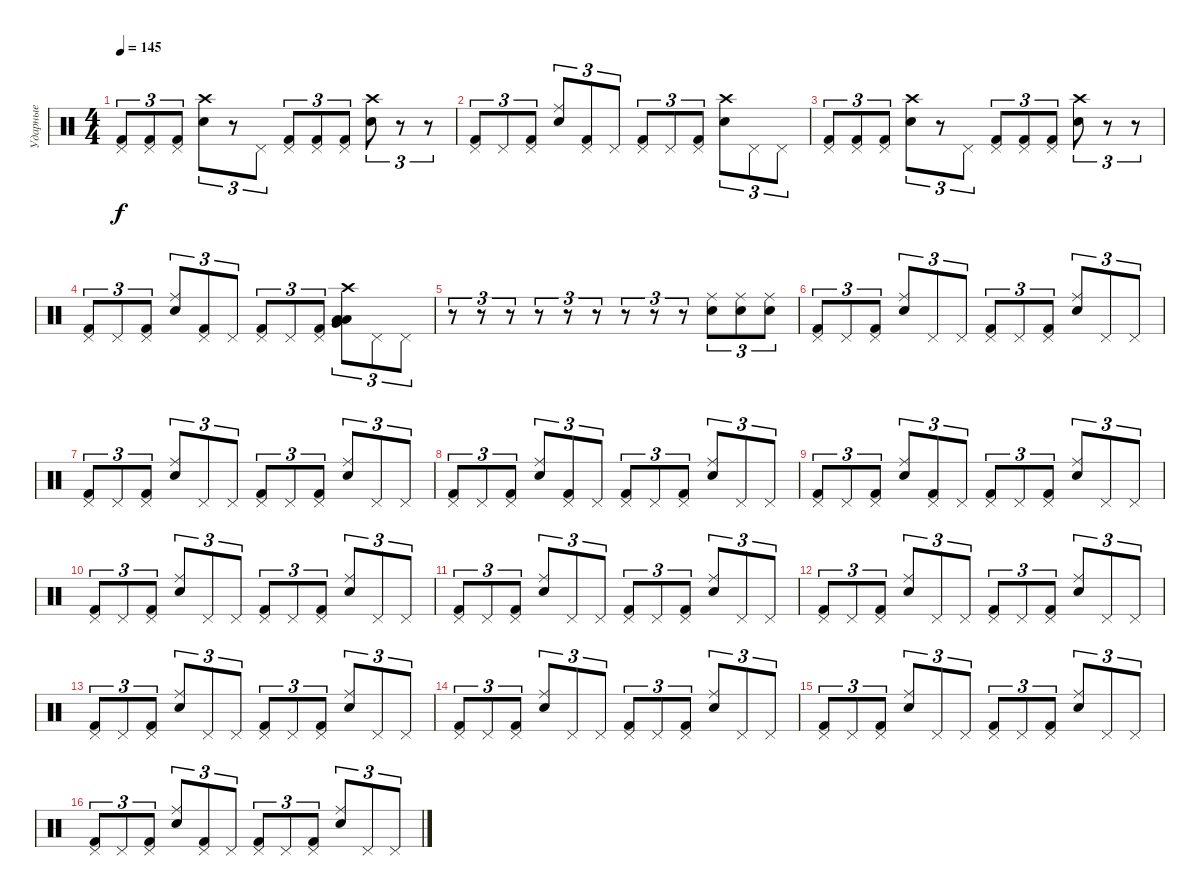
\track ("Ударные" "Ударные") {instrument percussion}
\staff {score}
\articulation defaults
\ts (4 4)
\tempo 145
\clef neutral
\ks c
("Kick (hit) 2" "Pedal Hi-Hat (hit)").8{tu (3 2) dy f} ("Kick (hit) 2" "Pedal Hi-Hat (hit)").8{tu (3 2)} ("Kick (hit) 2" "Pedal Hi-Hat (hit)").8{tu (3 2)} ("Crash high (hit)" "Electric Snare (hit)").8{tu (3 2)} r.8{tu (3 2)} "Pedal Hi-Hat (hit)".8{tu (3 2)} ("Kick (hit) 2" "Pedal Hi-Hat (hit)").8{tu (3 2)} ("Kick (hit) 2" "Pedal Hi-Hat (hit)").8{tu (3 2)} ("Kick (hit) 2" "Pedal Hi-Hat (hit)").8{tu (3 2)} ("Electric Snare (hit)" "Crash high (hit)").8{tu (3 2)} r.8{tu (3 2)} r.8{tu (3 2)} |
("Kick (hit) 2" "Pedal Hi-Hat (hit)").8{tu (3 2)} "Pedal Hi-Hat (hit)".8{tu (3 2)} ("Kick (hit) 2" "Pedal Hi-Hat (hit)").8{tu (3 2)} ("Electric Snare (hit)" "Ride (middle)").8{tu (3 2)} ("Kick (hit) 2" "Pedal Hi-Hat (hit)").8{tu (3 2)} "Pedal Hi-Hat (hit)".8{tu (3 2)} ("Kick (hit) 2" "Pedal Hi-Hat (hit)").8{tu (3 2)} "Pedal Hi-Hat (hit)".8{tu (3 2)} ("Pedal Hi-Hat (hit)" "Kick (hit) 2").8{tu (3 2)} ("Electric Snare (hit)" "Crash high (hit)").8{tu (3 2)} "Pedal Hi-Hat (hit)".8{tu (3 2)} "Pedal Hi-Hat (hit)".8{tu (3 2)} |
("Kick (hit) 2" "Pedal Hi-Hat (hit)").8{tu (3 2)} ("Kick (hit) 2" "Pedal Hi-Hat (hit)").8{tu (3 2)} ("Kick (hit) 2" "Pedal Hi-Hat (hit)").8{tu (3 2)} ("Crash high (hit)" "Electric Snare (hit)").8{tu (3 2)} r.8{tu (3 2)} "Pedal Hi-Hat (hit)".8{tu (3 2)} ("Kick (hit) 2" "Pedal Hi-Hat (hit)").8{tu (3 2)} ("Kick (hit) 2" "Pedal Hi-Hat (hit)").8{tu (3 2)} ("Kick (hit) 2" "Pedal Hi-Hat (hit)").8{tu (3 2)} ("Electric Snare (hit)" "Crash high (hit)").8{tu (3 2)} r.8{tu (3 2)} r.8{tu (3 2)} |
("Kick (hit) 2" "Pedal Hi-Hat (hit)").8{tu (3 2)} "Pedal Hi-Hat (hit)".8{tu (3 2)} ("Kick (hit) 2" "Pedal Hi-Hat (hit)").8{tu (3 2)} ("Electric Snare (hit)" "Ride (middle)").8{tu (3 2)} ("Kick (hit) 2" "Pedal Hi-Hat (hit)").8{tu (3 2)} "Pedal Hi-Hat (hit)".8{tu (3 2)} ("Kick (hit) 2" "Pedal Hi-Hat (hit)").8{tu (3 2)} "Pedal Hi-Hat (hit)".8{tu (3 2)} ("Pedal Hi-Hat (hit)" "Kick (hit) 2").8{tu (3 2)} ("Very Low Tom (hit)" "Low Floor Tom (hit)" "Crash high (hit)" "Low Tom (hit)").8{tu (3 2)} "Pedal Hi-Hat (hit)".8{tu (3 2)} "Pedal Hi-Hat (hit)".8{tu (3 2)} |
r.8{tu (3 2)} r.8{tu (3 2)} r.8{tu (3 2)} r.8{tu (3 2)} r.8{tu (3 2)} r.8{tu (3 2)} r.8{tu (3 2)} r.8{tu (3 2)} r.8{tu (3 2)} ("Electric Snare (hit)" "Ride (middle)").8{tu (3 2)} ("Electric Snare (hit)" "Ride (middle)").8{tu (3 2)} ("Electric Snare (hit)" "Ride (middle)").8{tu (3 2)} |
("Kick (hit) 2" "Pedal Hi-Hat (hit)").8{tu (3 2)} "Pedal Hi-Hat (hit)".8{tu (3 2)} ("Kick (hit) 2" "Pedal Hi-Hat (hit)").8{tu (3 2)} ("Electric Snare (hit)" "Ride (middle)").8{tu (3 2)} "Pedal Hi-Hat (hit)".8{tu (3 2)} "Pedal Hi-Hat (hit)".8{tu (3 2)} ("Kick (hit) 2" "Pedal Hi-Hat (hit)").8{tu (3 2)} "Pedal Hi-Hat (hit)".8{tu (3 2)} ("Pedal Hi-Hat (hit)" "Kick (hit) 2").8{tu (3 2)} ("Electric Snare (hit)" "Ride (middle)").8{tu (3 2)} "Pedal Hi-Hat (hit)".8{tu (3 2)} "Pedal Hi-Hat (hit)".8{tu (3 2)} |
("Kick (hit) 2" "Pedal Hi-Hat (hit)").8{tu (3 2)} "Pedal Hi-Hat (hit)".8{tu (3 2)} ("Kick (hit) 2" "Pedal Hi-Hat (hit)").8{tu (3 2)} ("Electric Snare (hit)" "Ride (middle)").8{tu (3 2)} "Pedal Hi-Hat (hit)".8{tu (3 2)} "Pedal Hi-Hat (hit)".8{tu (3 2)} ("Kick (hit) 2" "Pedal Hi-Hat (hit)").8{tu (3 2)} "Pedal Hi-Hat (hit)".8{tu (3 2)} ("Pedal Hi-Hat (hit)" "Kick (hit) 2").8{tu (3 2)} ("Electric Snare (hit)" "Ride (middle)").8{tu (3 2)} "Pedal Hi-Hat (hit)".8{tu (3 2)} "Pedal Hi-Hat (hit)".8{tu (3 2)} |
("Kick (hit) 2" "Pedal Hi-Hat (hit)").8{tu (3 2)} "Pedal Hi-Hat (hit)".8{tu (3 2)} ("Kick (hit) 2" "Pedal Hi-Hat (hit)").8{tu (3 2)} ("Electric Snare (hit)" "Ride (middle)").8{tu (3 2)} ("Kick (hit) 2" "Pedal Hi-Hat (hit)").8{tu (3 2)} "Pedal Hi-Hat (hit)".8{tu (3 2)} ("Kick (hit) 2" "Pedal Hi-Hat (hit)").8{tu (3 2)} "Pedal Hi-Hat (hit)".8{tu (3 2)} ("Pedal Hi-Hat (hit)" "Kick (hit) 2").8{tu (3 2)} ("Electric Snare (hit)" "Ride (middle)").8{tu (3 2)} "Pedal Hi-Hat (hit)".8{tu (3 2)} "Pedal Hi-Hat (hit)".8{tu (3 2)} |
("Kick (hit) 2" "Pedal Hi-Hat (hit)").8{tu (3 2)} "Pedal Hi-Hat (hit)".8{tu (3 2)} ("Kick (hit) 2" "Pedal Hi-Hat (hit)").8{tu (3 2)} ("Electric Snare (hit)" "Ride (middle)").8{tu (3 2)} ("Kick (hit) 2" "Pedal Hi-Hat (hit)").8{tu (3 2)} "Pedal Hi-Hat (hit)".8{tu (3 2)} ("Kick (hit) 2" "Pedal Hi-Hat (hit)").8{tu (3 2)} "Pedal Hi-Hat (hit)".8{tu (3 2)} ("Pedal Hi-Hat (hit)" "Kick (hit) 2").8{tu (3 2)} ("Electric Snare (hit)" "Ride (middle)").8{tu (3 2)} "Pedal Hi-Hat (hit)".8{tu (3 2)} "Pedal Hi-Hat (hit)".8{tu (3 2)} |
("Kick (hit) 2" "Pedal Hi-Hat (hit)").8{tu (3 2)} "Pedal Hi-Hat (hit)".8{tu (3 2)} ("Kick (hit) 2" "Pedal Hi-Hat (hit)").8{tu (3 2)} ("Electric Snare (hit)" "Ride (middle)").8{tu (3 2)} "Pedal Hi-Hat (hit)".8{tu (3 2)} "Pedal Hi-Hat (hit)".8{tu (3 2)} ("Kick (hit) 2" "Pedal Hi-Hat (hit)").8{tu (3 2)} "Pedal Hi-Hat (hit)".8{tu (3 2)} ("Pedal Hi-Hat (hit)" "Kick (hit) 2").8{tu (3 2)} ("Electric Snare (hit)" "Ride (middle)").8{tu (3 2)} "Pedal Hi-Hat (hit)".8{tu (3 2)} "Pedal Hi-Hat (hit)".8{tu (3 2)} |
("Kick (hit) 2" "Pedal Hi-Hat (hit)").8{tu (3 2)} "Pedal Hi-Hat (hit)".8{tu (3 2)} ("Kick (hit) 2" "Pedal Hi-Hat (hit)").8{tu (3 2)} ("Electric Snare (hit)" "Ride (middle)").8{tu (3 2)} "Pedal Hi-Hat (hit)".8{tu (3 2)} "Pedal Hi-Hat (hit)".8{tu (3 2)} ("Kick (hit) 2" "Pedal Hi-Hat (hit)").8{tu (3 2)} "Pedal Hi-Hat (hit)".8{tu (3 2)} ("Pedal Hi-Hat (hit)" "Kick (hit) 2").8{tu (3 2)} ("Electric Snare (hit)" "Ride (middle)").8{tu (3 2)} "Pedal Hi-Hat (hit)".8{tu (3 2)} "Pedal Hi-Hat (hit)".8{tu (3 2)} |
("Kick (hit) 2" "Pedal Hi-Hat (hit)").8{tu (3 2)} "Pedal Hi-Hat (hit)".8{tu (3 2)} ("Kick (hit) 2" "Pedal Hi-Hat (hit)").8{tu (3 2)} ("Electric Snare (hit)" "Ride (middle)").8{tu (3 2)} "Pedal Hi-Hat (hit)".8{tu (3 2)} "Pedal Hi-Hat (hit)".8{tu (3 2)} ("Kick (hit) 2" "Pedal Hi-Hat (hit)").8{tu (3 2)} "Pedal Hi-Hat (hit)".8{tu (3 2)} ("Pedal Hi-Hat (hit)" "Kick (hit) 2").8{tu (3 2)} ("Electric Snare (hit)" "Ride (middle)").8{tu (3 2)} "Pedal Hi-Hat (hit)".8{tu (3 2)} "Pedal Hi-Hat (hit)".8{tu (3 2)} |
("Kick (hit) 2" "Pedal Hi-Hat (hit)").8{tu (3 2)} "Pedal Hi-Hat (hit)".8{tu (3 2)} ("Kick (hit) 2" "Pedal Hi-Hat (hit)").8{tu (3 2)} ("Electric Snare (hit)" "Ride (middle)").8{tu (3 2)} "Pedal Hi-Hat (hit)".8{tu (3 2)} "Pedal Hi-Hat (hit)".8{tu (3 2)} ("Kick (hit) 2" "Pedal Hi-Hat (hit)").8{tu (3 2)} "Pedal Hi-Hat (hit)".8{tu (3 2)} ("Pedal Hi-Hat (hit)" "Kick (hit) 2").8{tu (3 2)} ("Electric Snare (hit)" "Ride (middle)").8{tu (3 2)} "Pedal Hi-Hat (hit)".8{tu (3 2)} "Pedal Hi-Hat (hit)".8{tu (3 2)} |
("Kick (hit) 2" "Pedal Hi-Hat (hit)").8{tu (3 2)} "Pedal Hi-Hat (hit)".8{tu (3 2)} ("Kick (hit) 2" "Pedal Hi-Hat (hit)").8{tu (3 2)} ("Electric Snare (hit)" "Ride (middle)").8{tu (3 2)} "Pedal Hi-Hat (hit)".8{tu (3 2)} "Pedal Hi-Hat (hit)".8{tu (3 2)} ("Kick (hit) 2" "Pedal Hi-Hat (hit)").8{tu (3 2)} "Pedal Hi-Hat (hit)".8{tu (3 2)} ("Pedal Hi-Hat (hit)" "Kick (hit) 2").8{tu (3 2)} ("Electric Snare (hit)" "Ride (middle)").8{tu (3 2)} "Pedal Hi-Hat (hit)".8{tu (3 2)} "Pedal Hi-Hat (hit)".8{tu (3 2)} |
("Kick (hit) 2" "Pedal Hi-Hat (hit)").8{tu (3 2)} "Pedal Hi-Hat (hit)".8{tu (3 2)} ("Kick (hit) 2" "Pedal Hi-Hat (hit)").8{tu (3 2)} ("Electric Snare (hit)" "Ride (middle)").8{tu (3 2)} "Pedal Hi-Hat (hit)".8{tu (3 2)} "Pedal Hi-Hat (hit)".8{tu (3 2)} ("Kick (hit) 2" "Pedal Hi-Hat (hit)").8{tu (3 2)} "Pedal Hi-Hat (hit)".8{tu (3 2)} ("Pedal Hi-Hat (hit)" "Kick (hit) 2").8{tu (3 2)} ("Electric Snare (hit)" "Ride (middle)").8{tu (3 2)} "Pedal Hi-Hat (hit)".8{tu (3 2)} "Pedal Hi-Hat (hit)".8{tu (3 2)} |
("Kick (hit) 2" "Pedal Hi-Hat (hit)").8{tu (3 2)} "Pedal Hi-Hat (hit)".8{tu (3 2)} ("Kick (hit) 2" "Pedal Hi-Hat (hit)").8{tu (3 2)} ("Electric Snare (hit)" "Ride (middle)").8{tu (3 2)} ("Kick (hit) 2" "Pedal Hi-Hat (hit)").8{tu (3 2)} "Pedal Hi-Hat (hit)".8{tu (3 2)} ("Kick (hit) 2" "Pedal Hi-Hat (hit)").8{tu (3 2)} "Pedal Hi-Hat (hit)".8{tu (3 2)} ("Pedal Hi-Hat (hit)" "Kick (hit) 2").8{tu (3 2)} ("Electric Snare (hit)" "Ride (middle)").8{tu (3 2)} "Pedal Hi-Hat (hit)".8{tu (3 2)} "Pedal Hi-Hat (hit)".8{tu (3 2)}
